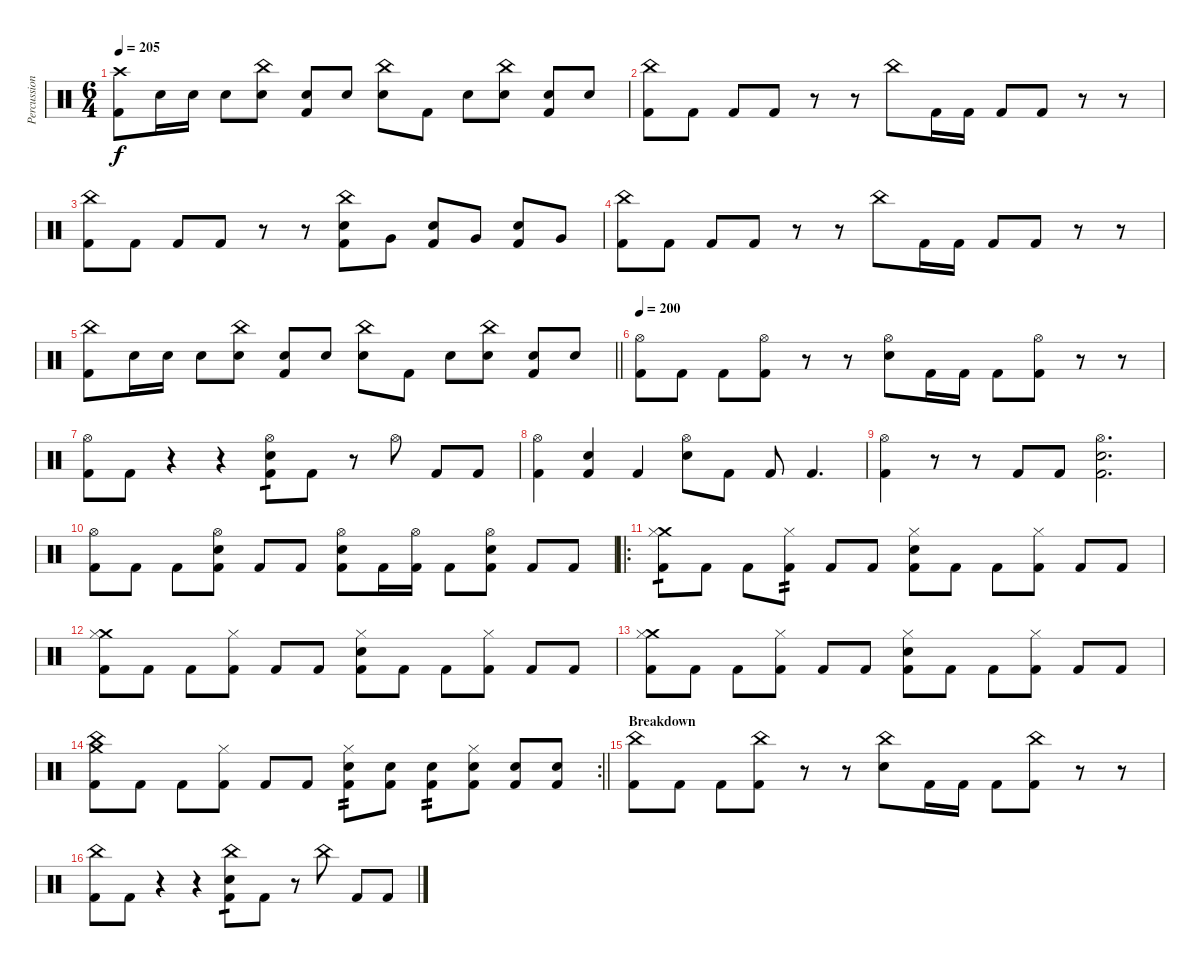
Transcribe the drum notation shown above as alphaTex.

\track ("Percussion" "Percussion") {instrument percussion}
\staff {score}
\articulation defaults
\ts (6 4)
\tempo 205
\clef neutral
\ks c
("Crash high (hit)" "Kick (hit) 2").8{dy f} "Electric Snare (hit)".16 "Electric Snare (hit)".16{volume 15} "Electric Snare (hit)".8 ("China (hit)" "Electric Snare (hit)").8 ("Electric Snare (hit)" "Kick (hit) 2").8 "Electric Snare (hit)".8 ("China (hit)" "Electric Snare (hit)").8 "Kick (hit) 2".8 "Electric Snare (hit)".8 ("China (hit)" "Electric Snare (hit)").8 ("Electric Snare (hit)" "Kick (hit) 2").8 "Electric Snare (hit)".8 |
("China (hit)" "Kick (hit) 2").8 "Kick (hit) 2".8 "Kick (hit) 2".8 "Kick (hit) 2".8 r.8 r.8 "China (hit)".8 "Kick (hit) 2".16 "Kick (hit) 2".16 "Kick (hit) 2".8 "Kick (hit) 2".8 r.8 r.8 |
("China (hit)" "Kick (hit) 2").8 "Kick (hit) 2".8 "Kick (hit) 2".8 "Kick (hit) 2".8 r.8 r.8 ("China (hit)" "Electric Snare (hit)" "Kick (hit) 2").8 "Very Low Tom (hit)".8 ("Electric Snare (hit)" "Kick (hit) 2").8 "Very Low Tom (hit)".8 ("Electric Snare (hit)" "Kick (hit) 2").8 "Very Low Tom (hit)".8 |
("China (hit)" "Kick (hit) 2").8 "Kick (hit) 2".8 "Kick (hit) 2".8 "Kick (hit) 2".8 r.8 r.8 "China (hit)".8 "Kick (hit) 2".16 "Kick (hit) 2".16 "Kick (hit) 2".8 "Kick (hit) 2".8 r.8 r.8 |
\barLineRight lightlight
("China (hit)" "Kick (hit) 2").8 "Electric Snare (hit)".16 "Electric Snare (hit)".16 "Electric Snare (hit)".8 ("China (hit)" "Electric Snare (hit)").8 ("Electric Snare (hit)" "Kick (hit) 2").8 "Electric Snare (hit)".8 ("China (hit)" "Electric Snare (hit)").8 "Kick (hit) 2".8 "Electric Snare (hit)".8 ("China (hit)" "Electric Snare (hit)").8 ("Electric Snare (hit)" "Kick (hit) 2").8 "Electric Snare (hit)".8 |
\tempo 200
("Hi-Hat (open)" "Kick (hit) 2").8{volume 11} "Kick (hit) 2".8 "Kick (hit) 2".8 ("Hi-Hat (open)" "Kick (hit) 2").8 r.8 r.8 ("Hi-Hat (open)" "Electric Snare (hit)").8 "Kick (hit) 2".16 "Kick (hit) 2".16 "Kick (hit) 2".8 ("Hi-Hat (open)" "Kick (hit) 2").8 r.8 r.8 |
("Hi-Hat (open)" "Kick (hit) 2").8 "Kick (hit) 2".8 r.4 r.4 ("Hi-Hat (open)" "Electric Snare (hit)" "Kick (hit) 2").8{tp 1} "Kick (hit) 2".8 r.8 "Hi-Hat (open)".8 "Kick (hit) 2".8 "Kick (hit) 2".8 |
("Hi-Hat (open)" "Kick (hit) 2").4 ("Snare (hit)" "Kick (hit) 2").4 "Kick (hit) 2".4 ("Hi-Hat (open)" "Electric Snare (hit)").8 "Kick (hit) 2".8 "Kick (hit) 2".8 "Kick (hit) 2".4{d} |
("Hi-Hat (open)" "Kick (hit) 2").4 r.8 r.8 "Kick (hit) 2".8 "Kick (hit) 2".8 ("Hi-Hat (open)" "Electric Snare (hit)" "Kick (hit) 2").2{d} |
("Hi-Hat (open)" "Kick (hit) 2").8 "Kick (hit) 2".8 "Kick (hit) 2".8 ("Hi-Hat (open)" "Electric Snare (hit)" "Kick (hit) 2").8 "Kick (hit) 2".8 "Kick (hit) 2".8 ("Hi-Hat (open)" "Electric Snare (hit)" "Kick (hit) 2").8 "Kick (hit) 2".16 ("Hi-Hat (open)" "Kick (hit) 2").16 "Kick (hit) 2".8 ("Hi-Hat (open)" "Electric Snare (hit)" "Kick (hit) 2").8 "Kick (hit) 2".8 "Kick (hit) 2".8 |
\ro
("Crash medium (hit)" "Hi-Hat (closed)" "Kick (hit) 2").8{tp 1} "Kick (hit) 2".8 "Kick (hit) 2".8 ("Hi-Hat (closed)" "Kick (hit) 2").8{tp 2} "Kick (hit) 2".8 "Kick (hit) 2".8 ("Hi-Hat (closed)" "Electric Snare (hit)" "Kick (hit) 2").8 "Kick (hit) 2".8 "Kick (hit) 2".8 ("Hi-Hat (closed)" "Kick (hit) 2").8 "Kick (hit) 2".8 "Kick (hit) 2".8 |
("Crash medium (hit)" "Hi-Hat (closed)" "Kick (hit) 2").8 "Kick (hit) 2".8 "Kick (hit) 2".8 ("Hi-Hat (closed)" "Kick (hit) 2").8 "Kick (hit) 2".8 "Kick (hit) 2".8 ("Hi-Hat (closed)" "Electric Snare (hit)" "Kick (hit) 2").8 "Kick (hit) 2".8 "Kick (hit) 2".8 ("Hi-Hat (closed)" "Kick (hit) 2").8 "Kick (hit) 2".8 "Kick (hit) 2".8 |
("Crash medium (hit)" "Hi-Hat (closed)" "Kick (hit) 2").8 "Kick (hit) 2".8 "Kick (hit) 2".8 ("Hi-Hat (closed)" "Kick (hit) 2").8 "Kick (hit) 2".8 "Kick (hit) 2".8 ("Hi-Hat (closed)" "Electric Snare (hit)" "Kick (hit) 2").8 "Kick (hit) 2".8 "Kick (hit) 2".8 ("Hi-Hat (closed)" "Kick (hit) 2").8 "Kick (hit) 2".8 "Kick (hit) 2".8 |
\rc 2
\barLineRight lightlight
("Crash medium (hit)" "China (hit)" "Kick (hit) 2").8 "Kick (hit) 2".8 "Kick (hit) 2".8 ("Hi-Hat (closed)" "Kick (hit) 2").8 "Kick (hit) 2".8 "Kick (hit) 2".8 ("Hi-Hat (closed)" "Electric Snare (hit)" "Kick (hit) 2").8{tp 2} ("Electric Snare (hit)" "Kick (hit) 2").8 ("Electric Snare (hit)" "Kick (hit) 2").8{tp 2} ("Hi-Hat (closed)" "Electric Snare (hit)" "Kick (hit) 2").8 ("Electric Snare (hit)" "Kick (hit) 2").8 ("Electric Snare (hit)" "Kick (hit) 2").8 |
\section ("" "Breakdown")
("China (hit)" "Kick (hit) 2").8 "Kick (hit) 2".8 "Kick (hit) 2".8 ("China (hit)" "Kick (hit) 2").8 r.8 r.8 ("China (hit)" "Electric Snare (hit)").8 "Kick (hit) 2".16 "Kick (hit) 2".16 "Kick (hit) 2".8 ("China (hit)" "Kick (hit) 2").8 r.8 r.8 |
("China (hit)" "Kick (hit) 2").8 "Kick (hit) 2".8 r.4 r.4 ("China (hit)" "Electric Snare (hit)" "Kick (hit) 2").8{tp 1} "Kick (hit) 2".8 r.8 "China (hit)".8 "Kick (hit) 2".8 "Kick (hit) 2".8
